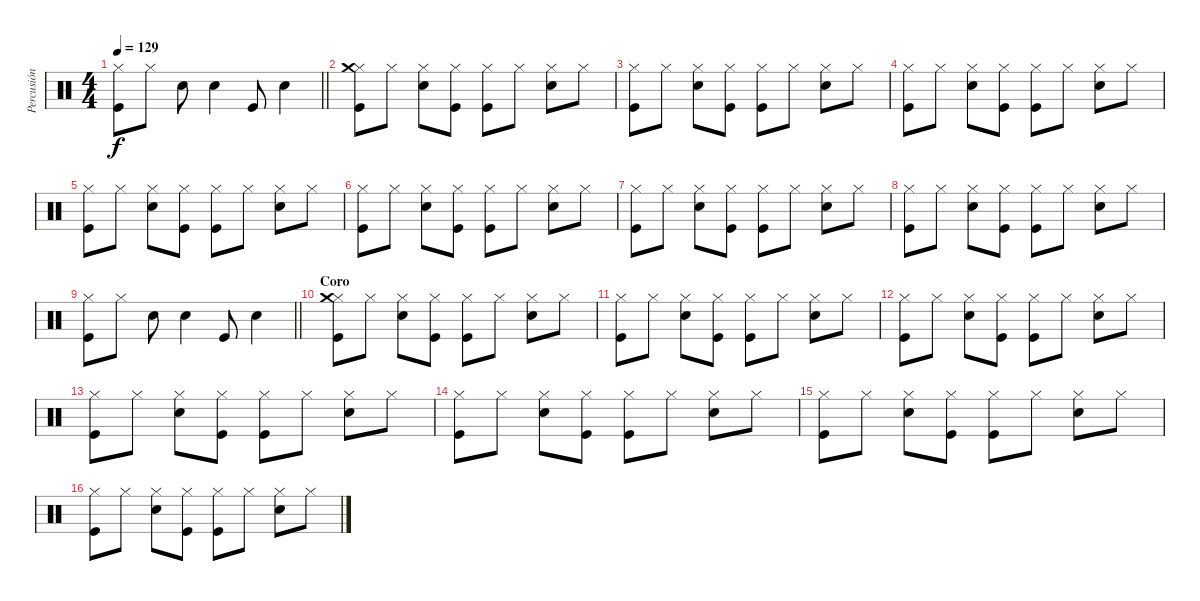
\track ("Percusión" "Percusión") {instrument percussion}
\staff {score}
\articulation defaults
\ts (4 4)
\tempo 129
\clef neutral
\barLineRight lightlight
\ks c
("Hi-Hat (closed)" "Kick (hit)").8{dy f} "Hi-Hat (closed)".8 "Electric Snare (hit)".8 "Electric Snare (hit)".4 "Kick (hit)".8 "Electric Snare (hit)".4 |
\section ("" "")
("Hi-Hat (closed)" "Kick (hit)" "Crash medium (hit)").8 "Hi-Hat (closed)".8 ("Hi-Hat (closed)" "Electric Snare (hit)").8 ("Hi-Hat (closed)" "Kick (hit)").8 ("Hi-Hat (closed)" "Kick (hit)").8 "Hi-Hat (closed)".8 ("Hi-Hat (closed)" "Electric Snare (hit)").8 "Hi-Hat (closed)".8 |
("Hi-Hat (closed)" "Kick (hit)").8 "Hi-Hat (closed)".8 ("Hi-Hat (closed)" "Electric Snare (hit)").8 ("Hi-Hat (closed)" "Kick (hit)").8 ("Hi-Hat (closed)" "Kick (hit)").8 "Hi-Hat (closed)".8 ("Hi-Hat (closed)" "Electric Snare (hit)").8 "Hi-Hat (closed)".8 |
("Hi-Hat (closed)" "Kick (hit)").8 "Hi-Hat (closed)".8 ("Hi-Hat (closed)" "Electric Snare (hit)").8 ("Hi-Hat (closed)" "Kick (hit)").8 ("Hi-Hat (closed)" "Kick (hit)").8 "Hi-Hat (closed)".8 ("Hi-Hat (closed)" "Electric Snare (hit)").8 "Hi-Hat (closed)".8 |
("Hi-Hat (closed)" "Kick (hit)").8 "Hi-Hat (closed)".8 ("Hi-Hat (closed)" "Electric Snare (hit)").8 ("Hi-Hat (closed)" "Kick (hit)").8 ("Hi-Hat (closed)" "Kick (hit)").8 "Hi-Hat (closed)".8 ("Hi-Hat (closed)" "Electric Snare (hit)").8 "Hi-Hat (closed)".8 |
("Hi-Hat (closed)" "Kick (hit)").8 "Hi-Hat (closed)".8 ("Hi-Hat (closed)" "Electric Snare (hit)").8 ("Hi-Hat (closed)" "Kick (hit)").8 ("Hi-Hat (closed)" "Kick (hit)").8 "Hi-Hat (closed)".8 ("Hi-Hat (closed)" "Electric Snare (hit)").8 "Hi-Hat (closed)".8 |
("Hi-Hat (closed)" "Kick (hit)").8 "Hi-Hat (closed)".8 ("Hi-Hat (closed)" "Electric Snare (hit)").8 ("Hi-Hat (closed)" "Kick (hit)").8 ("Hi-Hat (closed)" "Kick (hit)").8 "Hi-Hat (closed)".8 ("Hi-Hat (closed)" "Electric Snare (hit)").8 "Hi-Hat (closed)".8 |
("Hi-Hat (closed)" "Kick (hit)").8 "Hi-Hat (closed)".8 ("Hi-Hat (closed)" "Electric Snare (hit)").8 ("Hi-Hat (closed)" "Kick (hit)").8 ("Hi-Hat (closed)" "Kick (hit)").8 "Hi-Hat (closed)".8 ("Hi-Hat (closed)" "Electric Snare (hit)").8 "Hi-Hat (closed)".8 |
\barLineRight lightlight
("Hi-Hat (closed)" "Kick (hit)").8 "Hi-Hat (closed)".8 "Electric Snare (hit)".8 "Electric Snare (hit)".4 "Kick (hit)".8 "Electric Snare (hit)".4 |
\section ("" "Coro")
("Hi-Hat (closed)" "Kick (hit)" "Crash medium (hit)").8 "Hi-Hat (closed)".8 ("Hi-Hat (closed)" "Electric Snare (hit)").8 ("Hi-Hat (closed)" "Kick (hit)").8 ("Hi-Hat (closed)" "Kick (hit)").8 "Hi-Hat (closed)".8 ("Hi-Hat (closed)" "Electric Snare (hit)").8 "Hi-Hat (closed)".8 |
("Hi-Hat (closed)" "Kick (hit)").8 "Hi-Hat (closed)".8 ("Hi-Hat (closed)" "Electric Snare (hit)").8 ("Hi-Hat (closed)" "Kick (hit)").8 ("Hi-Hat (closed)" "Kick (hit)").8 "Hi-Hat (closed)".8 ("Hi-Hat (closed)" "Electric Snare (hit)").8 "Hi-Hat (closed)".8 |
("Hi-Hat (closed)" "Kick (hit)").8 "Hi-Hat (closed)".8 ("Hi-Hat (closed)" "Electric Snare (hit)").8 ("Hi-Hat (closed)" "Kick (hit)").8 ("Hi-Hat (closed)" "Kick (hit)").8 "Hi-Hat (closed)".8 ("Hi-Hat (closed)" "Electric Snare (hit)").8 "Hi-Hat (closed)".8 |
("Hi-Hat (closed)" "Kick (hit)").8 "Hi-Hat (closed)".8 ("Hi-Hat (closed)" "Electric Snare (hit)").8 ("Hi-Hat (closed)" "Kick (hit)").8 ("Hi-Hat (closed)" "Kick (hit)").8 "Hi-Hat (closed)".8 ("Hi-Hat (closed)" "Electric Snare (hit)").8 "Hi-Hat (closed)".8 |
("Hi-Hat (closed)" "Kick (hit)").8 "Hi-Hat (closed)".8 ("Hi-Hat (closed)" "Electric Snare (hit)").8 ("Hi-Hat (closed)" "Kick (hit)").8 ("Hi-Hat (closed)" "Kick (hit)").8 "Hi-Hat (closed)".8 ("Hi-Hat (closed)" "Electric Snare (hit)").8 "Hi-Hat (closed)".8 |
("Hi-Hat (closed)" "Kick (hit)").8 "Hi-Hat (closed)".8 ("Hi-Hat (closed)" "Electric Snare (hit)").8 ("Hi-Hat (closed)" "Kick (hit)").8 ("Hi-Hat (closed)" "Kick (hit)").8 "Hi-Hat (closed)".8 ("Hi-Hat (closed)" "Electric Snare (hit)").8 "Hi-Hat (closed)".8 |
("Hi-Hat (closed)" "Kick (hit)").8 "Hi-Hat (closed)".8 ("Hi-Hat (closed)" "Electric Snare (hit)").8 ("Hi-Hat (closed)" "Kick (hit)").8 ("Hi-Hat (closed)" "Kick (hit)").8 "Hi-Hat (closed)".8 ("Hi-Hat (closed)" "Electric Snare (hit)").8 "Hi-Hat (closed)".8
